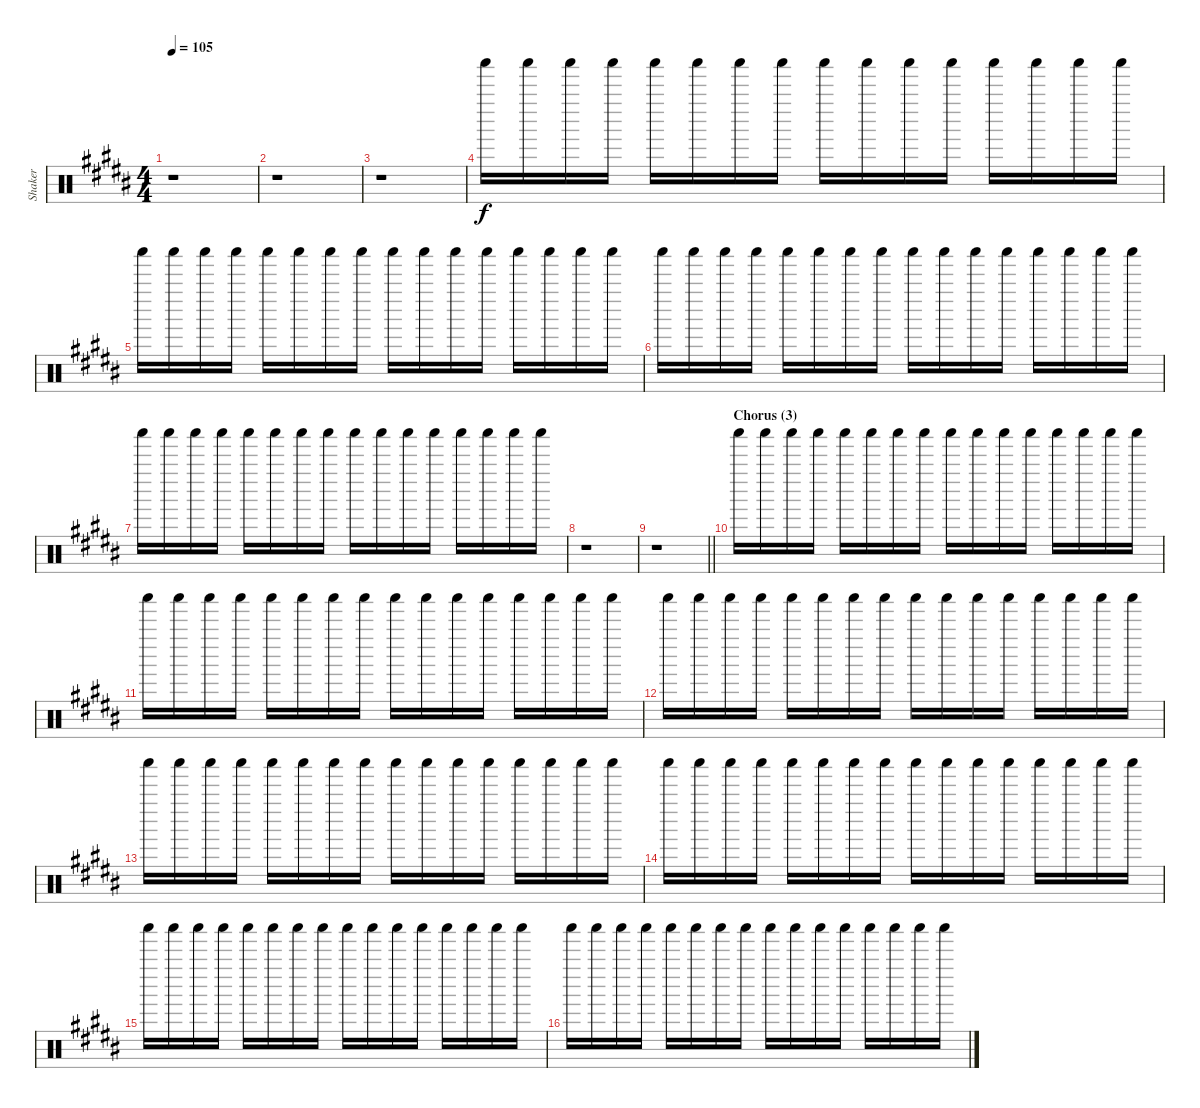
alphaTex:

\track ("Shaker" "Shaker") {instrument percussion}
\staff {score}
\articulation defaults
\ts (4 4)
\tempo 105
\clef neutral
\ks g#minor
r.1{dy f} |
r.1 |
r.1 |
"Shaker (hit)".16 "Shaker (hit)".16 "Shaker (hit)".16 "Shaker (hit)".16 "Shaker (hit)".16 "Shaker (hit)".16 "Shaker (hit)".16 "Shaker (hit)".16 "Shaker (hit)".16 "Shaker (hit)".16 "Shaker (hit)".16 "Shaker (hit)".16 "Shaker (hit)".16 "Shaker (hit)".16 "Shaker (hit)".16 "Shaker (hit)".16 |
"Shaker (hit)".16 "Shaker (hit)".16 "Shaker (hit)".16 "Shaker (hit)".16 "Shaker (hit)".16 "Shaker (hit)".16 "Shaker (hit)".16 "Shaker (hit)".16 "Shaker (hit)".16 "Shaker (hit)".16 "Shaker (hit)".16 "Shaker (hit)".16 "Shaker (hit)".16 "Shaker (hit)".16 "Shaker (hit)".16 "Shaker (hit)".16 |
"Shaker (hit)".16 "Shaker (hit)".16 "Shaker (hit)".16 "Shaker (hit)".16 "Shaker (hit)".16 "Shaker (hit)".16 "Shaker (hit)".16 "Shaker (hit)".16 "Shaker (hit)".16 "Shaker (hit)".16 "Shaker (hit)".16 "Shaker (hit)".16 "Shaker (hit)".16 "Shaker (hit)".16 "Shaker (hit)".16 "Shaker (hit)".16 |
"Shaker (hit)".16 "Shaker (hit)".16 "Shaker (hit)".16 "Shaker (hit)".16 "Shaker (hit)".16 "Shaker (hit)".16 "Shaker (hit)".16 "Shaker (hit)".16 "Shaker (hit)".16 "Shaker (hit)".16 "Shaker (hit)".16 "Shaker (hit)".16 "Shaker (hit)".16 "Shaker (hit)".16 "Shaker (hit)".16 "Shaker (hit)".16 |
r.1 |
\barLineRight lightlight
r.1 |
\section ("" "Chorus (3)")
"Shaker (hit)".16 "Shaker (hit)".16 "Shaker (hit)".16 "Shaker (hit)".16 "Shaker (hit)".16 "Shaker (hit)".16 "Shaker (hit)".16 "Shaker (hit)".16 "Shaker (hit)".16 "Shaker (hit)".16 "Shaker (hit)".16 "Shaker (hit)".16 "Shaker (hit)".16 "Shaker (hit)".16 "Shaker (hit)".16 "Shaker (hit)".16 |
"Shaker (hit)".16 "Shaker (hit)".16 "Shaker (hit)".16 "Shaker (hit)".16 "Shaker (hit)".16 "Shaker (hit)".16 "Shaker (hit)".16 "Shaker (hit)".16 "Shaker (hit)".16 "Shaker (hit)".16 "Shaker (hit)".16 "Shaker (hit)".16 "Shaker (hit)".16 "Shaker (hit)".16 "Shaker (hit)".16 "Shaker (hit)".16 |
"Shaker (hit)".16 "Shaker (hit)".16 "Shaker (hit)".16 "Shaker (hit)".16 "Shaker (hit)".16 "Shaker (hit)".16 "Shaker (hit)".16 "Shaker (hit)".16 "Shaker (hit)".16 "Shaker (hit)".16 "Shaker (hit)".16 "Shaker (hit)".16 "Shaker (hit)".16 "Shaker (hit)".16 "Shaker (hit)".16 "Shaker (hit)".16 |
"Shaker (hit)".16 "Shaker (hit)".16 "Shaker (hit)".16 "Shaker (hit)".16 "Shaker (hit)".16 "Shaker (hit)".16 "Shaker (hit)".16 "Shaker (hit)".16 "Shaker (hit)".16 "Shaker (hit)".16 "Shaker (hit)".16 "Shaker (hit)".16 "Shaker (hit)".16 "Shaker (hit)".16 "Shaker (hit)".16 "Shaker (hit)".16 |
"Shaker (hit)".16 "Shaker (hit)".16 "Shaker (hit)".16 "Shaker (hit)".16 "Shaker (hit)".16 "Shaker (hit)".16 "Shaker (hit)".16 "Shaker (hit)".16 "Shaker (hit)".16 "Shaker (hit)".16 "Shaker (hit)".16 "Shaker (hit)".16 "Shaker (hit)".16 "Shaker (hit)".16 "Shaker (hit)".16 "Shaker (hit)".16 |
"Shaker (hit)".16 "Shaker (hit)".16 "Shaker (hit)".16 "Shaker (hit)".16 "Shaker (hit)".16 "Shaker (hit)".16 "Shaker (hit)".16 "Shaker (hit)".16 "Shaker (hit)".16 "Shaker (hit)".16 "Shaker (hit)".16 "Shaker (hit)".16 "Shaker (hit)".16 "Shaker (hit)".16 "Shaker (hit)".16 "Shaker (hit)".16 |
"Shaker (hit)".16 "Shaker (hit)".16 "Shaker (hit)".16 "Shaker (hit)".16 "Shaker (hit)".16 "Shaker (hit)".16 "Shaker (hit)".16 "Shaker (hit)".16 "Shaker (hit)".16 "Shaker (hit)".16 "Shaker (hit)".16 "Shaker (hit)".16 "Shaker (hit)".16 "Shaker (hit)".16 "Shaker (hit)".16 "Shaker (hit)".16
